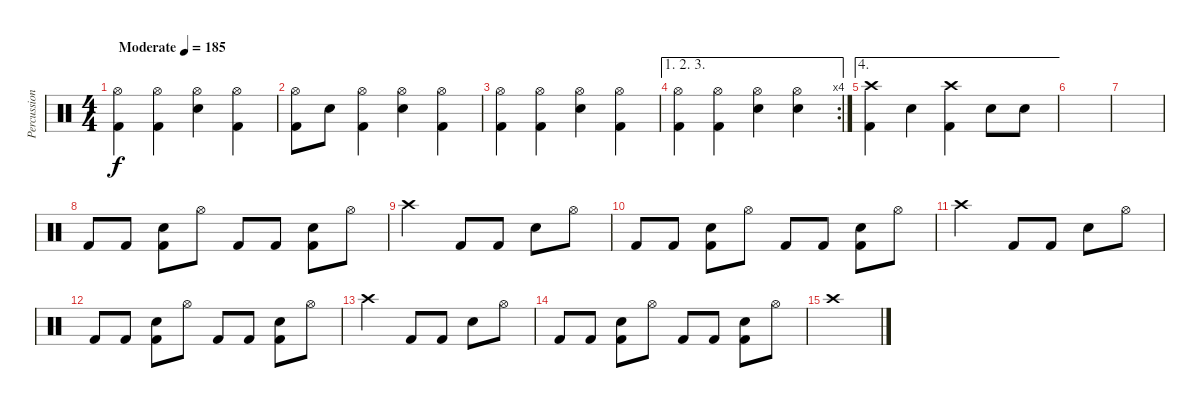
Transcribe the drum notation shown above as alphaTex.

\track ("Percussion" "Percussion") {instrument percussion}
\staff {score}
\articulation defaults
\ts (4 4)
\tempo (185 "Moderate")
\clef neutral
\ks c
("Hi-Hat (open)" "Kick (hit) 2").4{dy f} ("Hi-Hat (open)" "Kick (hit) 2").4 ("Hi-Hat (open)" "Snare (hit) 2").4 ("Hi-Hat (open)" "Kick (hit) 2").4 |
("Hi-Hat (open)" "Kick (hit) 2").8 "Snare (hit) 2".8 ("Hi-Hat (open)" "Kick (hit) 2").4 ("Hi-Hat (open)" "Snare (hit) 2").4 ("Hi-Hat (open)" "Kick (hit) 2").4 |
("Hi-Hat (open)" "Kick (hit) 2").4 ("Hi-Hat (open)" "Kick (hit) 2").4 ("Hi-Hat (open)" "Snare (hit) 2").4 ("Hi-Hat (open)" "Kick (hit) 2").4 |
\ae (1 2 3)
\rc 4
("Hi-Hat (open)" "Kick (hit) 2").4 ("Hi-Hat (open)" "Kick (hit) 2").4 ("Hi-Hat (open)" "Snare (hit) 2").4 ("Hi-Hat (open)" "Snare (hit) 2").4 |
\ae 4
("Crash high (hit)" "Kick (hit) 2").4 "Snare (hit) 2".4 ("Crash high (hit)" "Kick (hit) 2").4 "Snare (hit) 2".8 "Snare (hit) 2".8 |
|
|
"Kick (hit) 2".8 "Kick (hit) 2".8 ("Snare (hit) 2" "Kick (hit) 2").8 "Hi-Hat (open)".8 "Kick (hit) 2".8 "Kick (hit) 2".8 ("Snare (hit) 2" "Kick (hit) 2").8 "Hi-Hat (open)".8 |
"Crash high (hit)".2 "Kick (hit) 2".8 "Kick (hit) 2".8 "Snare (hit) 2".8 "Hi-Hat (open)".8 |
"Kick (hit) 2".8 "Kick (hit) 2".8 ("Snare (hit) 2" "Kick (hit) 2").8 "Hi-Hat (open)".8 "Kick (hit) 2".8 "Kick (hit) 2".8 ("Snare (hit) 2" "Kick (hit) 2").8 "Hi-Hat (open)".8 |
"Crash high (hit)".2 "Kick (hit) 2".8 "Kick (hit) 2".8 "Snare (hit) 2".8 "Hi-Hat (open)".8 |
"Kick (hit) 2".8 "Kick (hit) 2".8 ("Snare (hit) 2" "Kick (hit) 2").8 "Hi-Hat (open)".8 "Kick (hit) 2".8 "Kick (hit) 2".8 ("Snare (hit) 2" "Kick (hit) 2").8 "Hi-Hat (open)".8 |
"Crash high (hit)".2 "Kick (hit) 2".8 "Kick (hit) 2".8 "Snare (hit) 2".8 "Hi-Hat (open)".8 |
"Kick (hit) 2".8 "Kick (hit) 2".8 ("Snare (hit) 2" "Kick (hit) 2").8 "Hi-Hat (open)".8 "Kick (hit) 2".8 "Kick (hit) 2".8 ("Snare (hit) 2" "Kick (hit) 2").8 "Hi-Hat (open)".8 |
"Crash high (hit)".1
